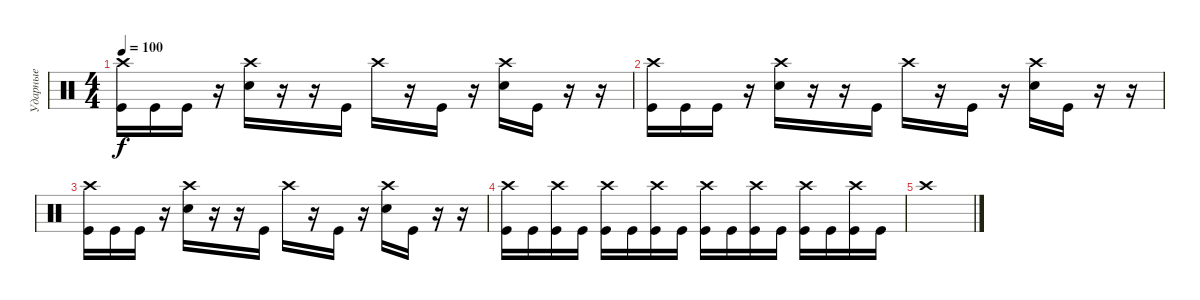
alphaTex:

\track ("Ударные" "Ударные") {instrument percussion}
\staff {score}
\articulation defaults
\ts (4 4)
\tempo 100
\clef neutral
\ks c
("Crash high (hit)" "Kick (hit)").16{dy f} "Kick (hit)".16 "Kick (hit)".16 r.16 ("Crash high (hit)" "Snare (hit) 2").16 r.16 r.16 "Kick (hit)".16 "Crash high (hit)".16 r.16 "Kick (hit)".16 r.16 ("Crash high (hit)" "Snare (hit) 2").16 "Kick (hit)".16 r.16 r.16 |
("Crash high (hit)" "Kick (hit)").16 "Kick (hit)".16 "Kick (hit)".16 r.16 ("Crash high (hit)" "Snare (hit) 2").16 r.16 r.16 "Kick (hit)".16 "Crash high (hit)".16 r.16 "Kick (hit)".16 r.16 ("Crash high (hit)" "Snare (hit) 2").16 "Kick (hit)".16 r.16 r.16 |
("Crash high (hit)" "Kick (hit)").16 "Kick (hit)".16 "Kick (hit)".16 r.16 ("Crash high (hit)" "Snare (hit) 2").16 r.16 r.16 "Kick (hit)".16 "Crash high (hit)".16 r.16 "Kick (hit)".16 r.16 ("Crash high (hit)" "Snare (hit) 2").16 "Kick (hit)".16 r.16 r.16 |
("Crash high (hit)" "Kick (hit)").16 "Kick (hit)".16 ("Kick (hit)" "Crash high (hit)").16 "Kick (hit)".16 ("Crash high (hit)" "Kick (hit)").16 "Kick (hit)".16 ("Crash high (hit)" "Kick (hit)").16 "Kick (hit)".16 ("Crash high (hit)" "Kick (hit)").16 "Kick (hit)".16 ("Crash high (hit)" "Kick (hit)").16 "Kick (hit)".16 ("Crash high (hit)" "Kick (hit)").16 "Kick (hit)".16 ("Crash high (hit)" "Kick (hit)").16 "Kick (hit)".16 |
"Crash high (hit)".1
